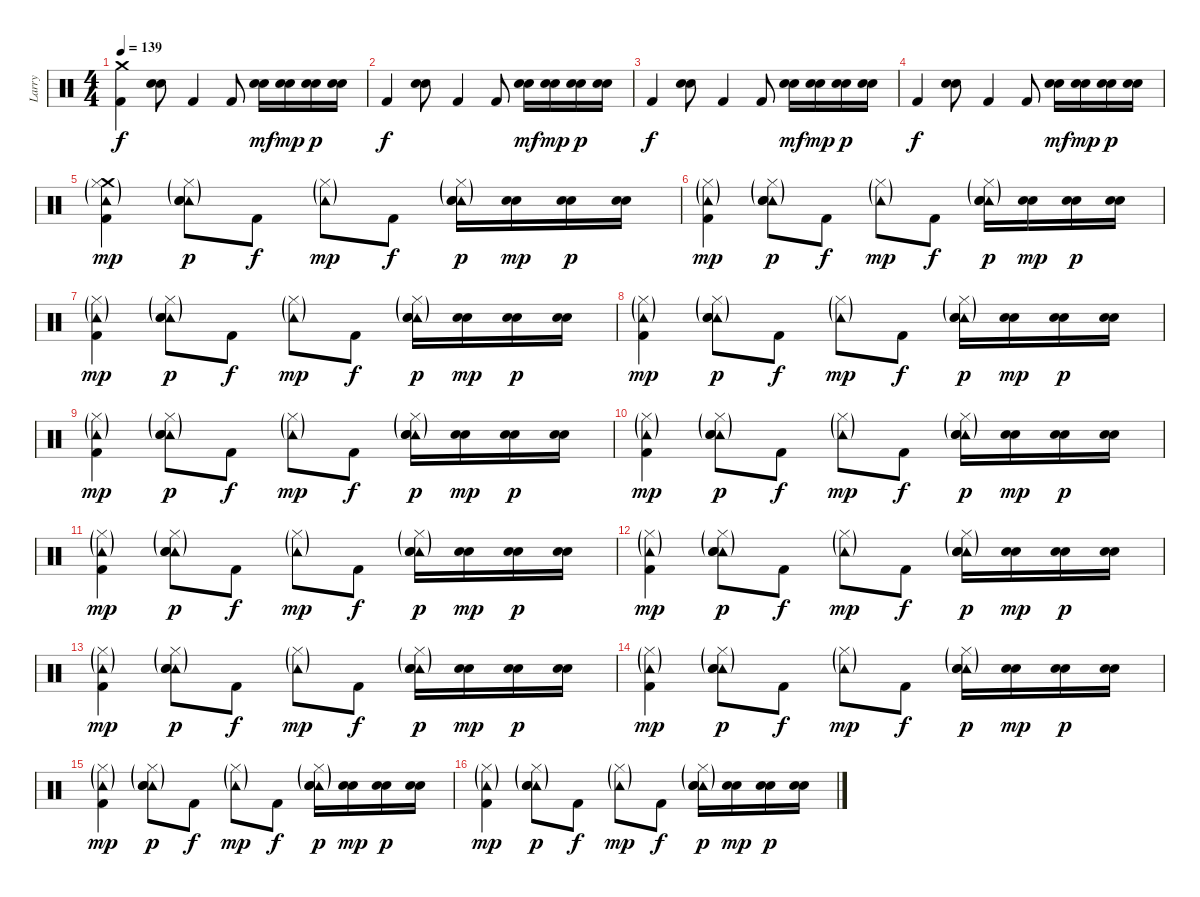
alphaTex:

\track ("Larry" "Larry") {instrument percussion}
\staff {score}
\articulation defaults
\ts (4 4)
\tempo 139
\clef neutral
\ks c
("Crash medium (hit)" "Kick (hit) 2").4{dy f} ("Snare (hit) 2" "Electric Snare (hit)").8 "Kick (hit) 2".4 "Kick (hit) 2".8 ("Snare (hit) 2" "Electric Snare (hit)").16{dy mf} ("Snare (hit) 2" "Electric Snare (hit)").16{dy mp} ("Snare (hit) 2" "Electric Snare (hit)").16{dy p} ("Snare (hit) 2" "Electric Snare (hit)").16 |
"Kick (hit) 2".4{dy f} ("Snare (hit) 2" "Electric Snare (hit)").8 "Kick (hit) 2".4 "Kick (hit) 2".8 ("Snare (hit) 2" "Electric Snare (hit)").16{dy mf} ("Snare (hit) 2" "Electric Snare (hit)").16{dy mp} ("Snare (hit) 2" "Electric Snare (hit)").16{dy p} ("Snare (hit) 2" "Electric Snare (hit)").16 |
"Kick (hit) 2".4{dy f} ("Snare (hit) 2" "Electric Snare (hit)").8 "Kick (hit) 2".4 "Kick (hit) 2".8 ("Snare (hit) 2" "Electric Snare (hit)").16{dy mf} ("Snare (hit) 2" "Electric Snare (hit)").16{dy mp} ("Snare (hit) 2" "Electric Snare (hit)").16{dy p} ("Snare (hit) 2" "Electric Snare (hit)").16 |
"Kick (hit) 2".4{dy f} ("Snare (hit) 2" "Electric Snare (hit)").8 "Kick (hit) 2".4 "Kick (hit) 2".8 ("Snare (hit) 2" "Electric Snare (hit)").16{dy mf} ("Snare (hit) 2" "Electric Snare (hit)").16{dy mp} ("Snare (hit) 2" "Electric Snare (hit)").16{dy p} ("Snare (hit) 2" "Electric Snare (hit)").16 |
("Crash medium (hit)" "Tambourine (hit)"{g} "Kick (hit) 2" "Hi-Hat (closed)"{g}).4{dy mp} ("Tambourine (hit)"{g} "Snare (hit) 2" "Electric Snare (hit)" "Hi-Hat (closed)"{g}).8{dy p} "Kick (hit) 2".8{dy f} ("Tambourine (hit)"{g} "Hi-Hat (closed)"{g}).8{dy mp} "Kick (hit) 2".8{dy f} ("Tambourine (hit)"{g} "Snare (hit) 2" "Electric Snare (hit)" "Hi-Hat (closed)"{g}).16{dy p} ("Snare (hit) 2" "Electric Snare (hit)").16{dy mp} ("Snare (hit) 2" "Electric Snare (hit)").16{dy p} ("Snare (hit) 2" "Electric Snare (hit)").16 |
("Tambourine (hit)"{g} "Kick (hit) 2" "Hi-Hat (closed)"{g}).4{dy mp} ("Tambourine (hit)"{g} "Snare (hit) 2" "Electric Snare (hit)" "Hi-Hat (closed)"{g}).8{dy p} "Kick (hit) 2".8{dy f} ("Tambourine (hit)"{g} "Hi-Hat (closed)"{g}).8{dy mp} "Kick (hit) 2".8{dy f} ("Tambourine (hit)"{g} "Snare (hit) 2" "Electric Snare (hit)" "Hi-Hat (closed)"{g}).16{dy p} ("Snare (hit) 2" "Electric Snare (hit)").16{dy mp} ("Snare (hit) 2" "Electric Snare (hit)").16{dy p} ("Snare (hit) 2" "Electric Snare (hit)").16 |
("Tambourine (hit)"{g} "Kick (hit) 2" "Hi-Hat (closed)"{g}).4{dy mp} ("Tambourine (hit)"{g} "Snare (hit) 2" "Electric Snare (hit)" "Hi-Hat (closed)"{g}).8{dy p} "Kick (hit) 2".8{dy f} ("Tambourine (hit)"{g} "Hi-Hat (closed)"{g}).8{dy mp} "Kick (hit) 2".8{dy f} ("Tambourine (hit)"{g} "Snare (hit) 2" "Electric Snare (hit)" "Hi-Hat (closed)"{g}).16{dy p} ("Snare (hit) 2" "Electric Snare (hit)").16{dy mp} ("Snare (hit) 2" "Electric Snare (hit)").16{dy p} ("Snare (hit) 2" "Electric Snare (hit)").16 |
("Tambourine (hit)"{g} "Kick (hit) 2" "Hi-Hat (closed)"{g}).4{dy mp} ("Tambourine (hit)"{g} "Snare (hit) 2" "Electric Snare (hit)" "Hi-Hat (closed)"{g}).8{dy p} "Kick (hit) 2".8{dy f} ("Tambourine (hit)"{g} "Hi-Hat (closed)"{g}).8{dy mp} "Kick (hit) 2".8{dy f} ("Tambourine (hit)"{g} "Snare (hit) 2" "Electric Snare (hit)" "Hi-Hat (closed)"{g}).16{dy p} ("Snare (hit) 2" "Electric Snare (hit)").16{dy mp} ("Snare (hit) 2" "Electric Snare (hit)").16{dy p} ("Snare (hit) 2" "Electric Snare (hit)").16 |
("Tambourine (hit)"{g} "Kick (hit) 2" "Hi-Hat (closed)"{g}).4{dy mp} ("Tambourine (hit)"{g} "Snare (hit) 2" "Electric Snare (hit)" "Hi-Hat (closed)"{g}).8{dy p} "Kick (hit) 2".8{dy f} ("Tambourine (hit)"{g} "Hi-Hat (closed)"{g}).8{dy mp} "Kick (hit) 2".8{dy f} ("Tambourine (hit)"{g} "Snare (hit) 2" "Electric Snare (hit)" "Hi-Hat (closed)"{g}).16{dy p} ("Snare (hit) 2" "Electric Snare (hit)").16{dy mp} ("Snare (hit) 2" "Electric Snare (hit)").16{dy p} ("Snare (hit) 2" "Electric Snare (hit)").16 |
("Tambourine (hit)"{g} "Kick (hit) 2" "Hi-Hat (closed)"{g}).4{dy mp} ("Tambourine (hit)"{g} "Snare (hit) 2" "Electric Snare (hit)" "Hi-Hat (closed)"{g}).8{dy p} "Kick (hit) 2".8{dy f} ("Tambourine (hit)"{g} "Hi-Hat (closed)"{g}).8{dy mp} "Kick (hit) 2".8{dy f} ("Tambourine (hit)"{g} "Snare (hit) 2" "Electric Snare (hit)" "Hi-Hat (closed)"{g}).16{dy p} ("Snare (hit) 2" "Electric Snare (hit)").16{dy mp} ("Snare (hit) 2" "Electric Snare (hit)").16{dy p} ("Snare (hit) 2" "Electric Snare (hit)").16 |
("Tambourine (hit)"{g} "Kick (hit) 2" "Hi-Hat (closed)"{g}).4{dy mp} ("Tambourine (hit)"{g} "Snare (hit) 2" "Electric Snare (hit)" "Hi-Hat (closed)"{g}).8{dy p} "Kick (hit) 2".8{dy f} ("Tambourine (hit)"{g} "Hi-Hat (closed)"{g}).8{dy mp} "Kick (hit) 2".8{dy f} ("Tambourine (hit)"{g} "Snare (hit) 2" "Electric Snare (hit)" "Hi-Hat (closed)"{g}).16{dy p} ("Snare (hit) 2" "Electric Snare (hit)").16{dy mp} ("Snare (hit) 2" "Electric Snare (hit)").16{dy p} ("Snare (hit) 2" "Electric Snare (hit)").16 |
("Tambourine (hit)"{g} "Kick (hit) 2" "Hi-Hat (closed)"{g}).4{dy mp} ("Tambourine (hit)"{g} "Snare (hit) 2" "Electric Snare (hit)" "Hi-Hat (closed)"{g}).8{dy p} "Kick (hit) 2".8{dy f} ("Tambourine (hit)"{g} "Hi-Hat (closed)"{g}).8{dy mp} "Kick (hit) 2".8{dy f} ("Tambourine (hit)"{g} "Snare (hit) 2" "Electric Snare (hit)" "Hi-Hat (closed)"{g}).16{dy p} ("Snare (hit) 2" "Electric Snare (hit)").16{dy mp} ("Snare (hit) 2" "Electric Snare (hit)").16{dy p} ("Snare (hit) 2" "Electric Snare (hit)").16 |
("Tambourine (hit)"{g} "Kick (hit) 2" "Hi-Hat (closed)"{g}).4{dy mp} ("Tambourine (hit)"{g} "Snare (hit) 2" "Electric Snare (hit)" "Hi-Hat (closed)"{g}).8{dy p} "Kick (hit) 2".8{dy f} ("Tambourine (hit)"{g} "Hi-Hat (closed)"{g}).8{dy mp} "Kick (hit) 2".8{dy f} ("Tambourine (hit)"{g} "Snare (hit) 2" "Electric Snare (hit)" "Hi-Hat (closed)"{g}).16{dy p} ("Snare (hit) 2" "Electric Snare (hit)").16{dy mp} ("Snare (hit) 2" "Electric Snare (hit)").16{dy p} ("Snare (hit) 2" "Electric Snare (hit)").16 |
("Tambourine (hit)"{g} "Kick (hit) 2" "Hi-Hat (closed)"{g}).4{dy mp} ("Tambourine (hit)"{g} "Snare (hit) 2" "Electric Snare (hit)" "Hi-Hat (closed)"{g}).8{dy p} "Kick (hit) 2".8{dy f} ("Tambourine (hit)"{g} "Hi-Hat (closed)"{g}).8{dy mp} "Kick (hit) 2".8{dy f} ("Tambourine (hit)"{g} "Snare (hit) 2" "Electric Snare (hit)" "Hi-Hat (closed)"{g}).16{dy p} ("Snare (hit) 2" "Electric Snare (hit)").16{dy mp} ("Snare (hit) 2" "Electric Snare (hit)").16{dy p} ("Snare (hit) 2" "Electric Snare (hit)").16 |
("Tambourine (hit)"{g} "Kick (hit) 2" "Hi-Hat (closed)"{g}).4{dy mp} ("Tambourine (hit)"{g} "Snare (hit) 2" "Electric Snare (hit)" "Hi-Hat (closed)"{g}).8{dy p} "Kick (hit) 2".8{dy f} ("Tambourine (hit)"{g} "Hi-Hat (closed)"{g}).8{dy mp} "Kick (hit) 2".8{dy f} ("Tambourine (hit)"{g} "Snare (hit) 2" "Electric Snare (hit)" "Hi-Hat (closed)"{g}).16{dy p} ("Snare (hit) 2" "Electric Snare (hit)").16{dy mp} ("Snare (hit) 2" "Electric Snare (hit)").16{dy p} ("Snare (hit) 2" "Electric Snare (hit)").16 |
("Tambourine (hit)"{g} "Kick (hit) 2" "Hi-Hat (closed)"{g}).4{dy mp} ("Tambourine (hit)"{g} "Snare (hit) 2" "Electric Snare (hit)" "Hi-Hat (closed)"{g}).8{dy p} "Kick (hit) 2".8{dy f} ("Tambourine (hit)"{g} "Hi-Hat (closed)"{g}).8{dy mp} "Kick (hit) 2".8{dy f} ("Tambourine (hit)"{g} "Snare (hit) 2" "Electric Snare (hit)" "Hi-Hat (closed)"{g}).16{dy p} ("Snare (hit) 2" "Electric Snare (hit)").16{dy mp} ("Snare (hit) 2" "Electric Snare (hit)").16{dy p} ("Snare (hit) 2" "Electric Snare (hit)").16
